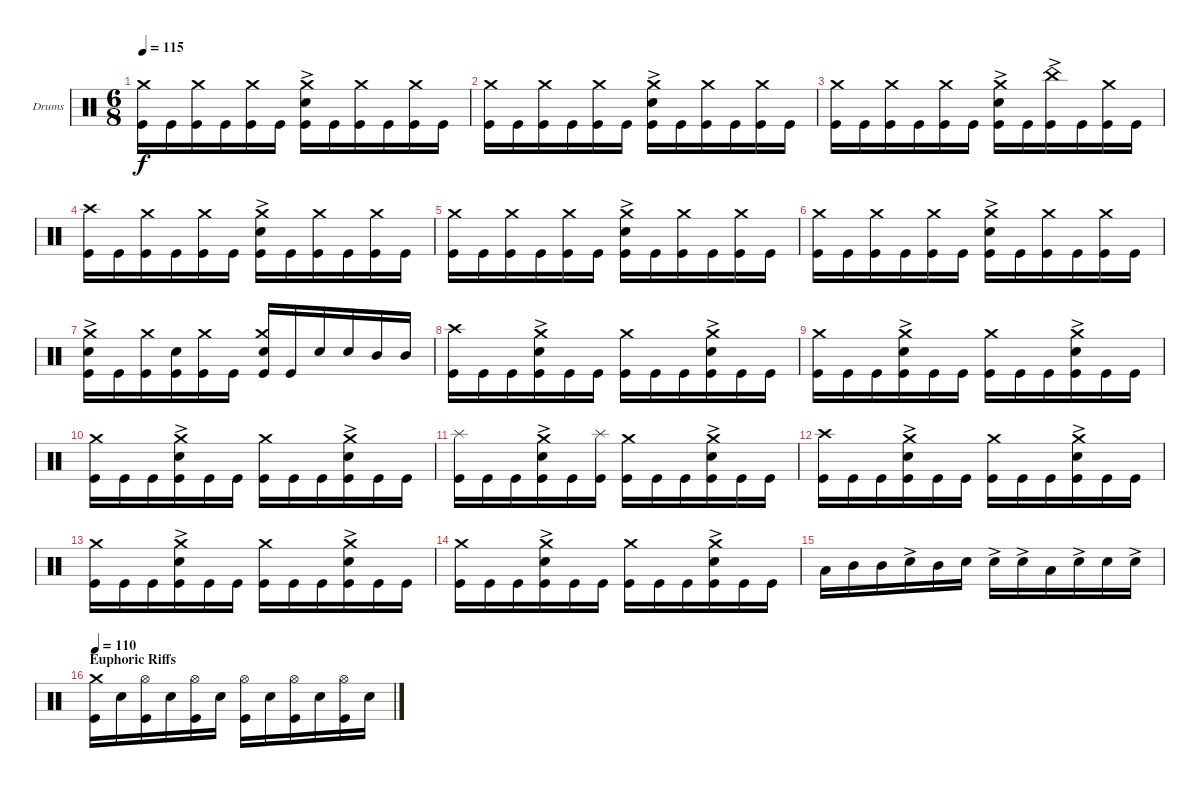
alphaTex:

\bracketExtendMode groupsimilarinstruments
\firstSystemTrackNameOrientation horizontal
\otherSystemsTrackNameOrientation horizontal
\track ("Drumkit" "Drums") {instrument percussion}
\staff {score}
\articulation defaults
\ts (6 8)
\tempo 115
\clef neutral
\ks c
("Kick (hit)" "Crash medium (hit)").16{dy f} "Kick (hit)".16 ("Kick (hit)" "Crash medium (hit)").16 "Kick (hit)".16 ("Kick (hit)" "Crash medium (hit)").16 "Kick (hit)".16 ("Kick (hit)" "Crash medium (hit)" "Snare (hit) 2"{ac}).16 "Kick (hit)".16 ("Kick (hit)" "Crash medium (hit)").16 "Kick (hit)".16 ("Kick (hit)" "Crash medium (hit)").16 "Kick (hit)".16 |
("Kick (hit)" "Crash medium (hit)").16 "Kick (hit)".16 ("Kick (hit)" "Crash medium (hit)").16 "Kick (hit)".16 ("Kick (hit)" "Crash medium (hit)").16 "Kick (hit)".16 ("Kick (hit)" "Crash medium (hit)" "Snare (hit) 2"{ac}).16 "Kick (hit)".16 ("Kick (hit)" "Crash medium (hit)").16 "Kick (hit)".16 ("Kick (hit)" "Crash medium (hit)").16 "Kick (hit)".16 |
("Kick (hit)" "Crash medium (hit)").16 "Kick (hit)".16 ("Kick (hit)" "Crash medium (hit)").16 "Kick (hit)".16 ("Kick (hit)" "Crash medium (hit)").16 "Kick (hit)".16 ("Kick (hit)" "Crash medium (hit)" "Snare (hit) 2"{ac}).16 "Kick (hit)".16 ("Kick (hit)" "China (hit)"{ac}).16 "Kick (hit)".16 ("Kick (hit)" "Crash medium (hit)").16 "Kick (hit)".16 |
("Kick (hit)" "Crash high (hit)").16 "Kick (hit)".16 ("Kick (hit)" "Crash medium (hit)").16 "Kick (hit)".16 ("Kick (hit)" "Crash medium (hit)").16 "Kick (hit)".16 ("Kick (hit)" "Crash medium (hit)" "Snare (hit) 2"{ac}).16 "Kick (hit)".16 ("Kick (hit)" "Crash medium (hit)").16 "Kick (hit)".16 ("Kick (hit)" "Crash medium (hit)").16 "Kick (hit)".16 |
("Kick (hit)" "Crash medium (hit)").16 "Kick (hit)".16 ("Kick (hit)" "Crash medium (hit)").16 "Kick (hit)".16 ("Kick (hit)" "Crash medium (hit)").16 "Kick (hit)".16 ("Kick (hit)" "Crash medium (hit)" "Snare (hit) 2"{ac}).16 "Kick (hit)".16 ("Kick (hit)" "Crash medium (hit)").16 "Kick (hit)".16 ("Kick (hit)" "Crash medium (hit)").16 "Kick (hit)".16 |
("Kick (hit)" "Crash medium (hit)").16 "Kick (hit)".16 ("Kick (hit)" "Crash medium (hit)").16 "Kick (hit)".16 ("Kick (hit)" "Crash medium (hit)").16 "Kick (hit)".16 ("Kick (hit)" "Crash medium (hit)" "Snare (hit) 2"{ac}).16 "Kick (hit)".16 ("Kick (hit)" "Crash medium (hit)").16 "Kick (hit)".16 ("Kick (hit)" "Crash medium (hit)").16 "Kick (hit)".16 |
("Kick (hit)" "Crash medium (hit)" "Snare (hit) 2"{ac}).16 "Kick (hit)".16 ("Kick (hit)" "Crash medium (hit)").16 ("Kick (hit)" "Snare (hit) 2").16 ("Kick (hit)" "Crash medium (hit)").16 "Kick (hit)".16 ("Kick (hit)" "Crash medium (hit)" "Snare (hit) 2").16 "Kick (hit)".16 "Snare (hit) 2".16 "Snare (hit) 2".16 "Mid Tom (hit)".16 "Mid Tom (hit)".16 |
("Kick (hit)" "Crash high (hit)").16 "Kick (hit)".16 "Kick (hit)".16 ("Kick (hit)" "Snare (hit) 2"{ac} "Crash medium (hit)").16 "Kick (hit)".16 "Kick (hit)".16 ("Kick (hit)" "Crash medium (hit)").16 "Kick (hit)".16 "Kick (hit)".16 ("Kick (hit)" "Snare (hit) 2"{ac} "Crash medium (hit)").16 "Kick (hit)".16 "Kick (hit)".16 |
("Kick (hit)" "Crash medium (hit)").16 "Kick (hit)".16 "Kick (hit)".16 ("Kick (hit)" "Snare (hit) 2"{ac} "Crash medium (hit)").16 "Kick (hit)".16 "Kick (hit)".16 ("Kick (hit)" "Crash medium (hit)").16 "Kick (hit)".16 "Kick (hit)".16 ("Kick (hit)" "Snare (hit) 2"{ac} "Crash medium (hit)").16 "Kick (hit)".16 "Kick (hit)".16 |
("Kick (hit)" "Crash medium (hit)").16 "Kick (hit)".16 "Kick (hit)".16 ("Kick (hit)" "Snare (hit) 2"{ac} "Crash medium (hit)").16 "Kick (hit)".16 "Kick (hit)".16 ("Kick (hit)" "Crash medium (hit)").16 "Kick (hit)".16 "Kick (hit)".16 ("Kick (hit)" "Snare (hit) 2"{ac} "Crash medium (hit)").16 "Kick (hit)".16 "Kick (hit)".16 |
("Kick (hit)" "Splash (hit)").16 "Kick (hit)".16 "Kick (hit)".16 ("Kick (hit)" "Snare (hit) 2"{ac} "Crash medium (hit)").16 "Kick (hit)".16 ("Kick (hit)" "Splash (hit)").16 ("Kick (hit)" "Crash medium (hit)").16 "Kick (hit)".16 "Kick (hit)".16 ("Kick (hit)" "Snare (hit) 2"{ac} "Crash medium (hit)").16 "Kick (hit)".16 "Kick (hit)".16 |
("Kick (hit)" "Crash high (hit)").16 "Kick (hit)".16 "Kick (hit)".16 ("Kick (hit)" "Snare (hit) 2"{ac} "Crash medium (hit)").16 "Kick (hit)".16 "Kick (hit)".16 ("Kick (hit)" "Crash medium (hit)").16 "Kick (hit)".16 "Kick (hit)".16 ("Kick (hit)" "Snare (hit) 2"{ac} "Crash medium (hit)").16 "Kick (hit)".16 "Kick (hit)".16 |
("Kick (hit)" "Crash medium (hit)").16 "Kick (hit)".16 "Kick (hit)".16 ("Kick (hit)" "Snare (hit) 2"{ac} "Crash medium (hit)").16 "Kick (hit)".16 "Kick (hit)".16 ("Kick (hit)" "Crash medium (hit)").16 "Kick (hit)".16 "Kick (hit)".16 ("Kick (hit)" "Snare (hit) 2"{ac} "Crash medium (hit)").16 "Kick (hit)".16 "Kick (hit)".16 |
("Kick (hit)" "Crash medium (hit)").16 "Kick (hit)".16 "Kick (hit)".16 ("Kick (hit)" "Snare (hit) 2"{ac} "Crash medium (hit)").16 "Kick (hit)".16 "Kick (hit)".16 ("Kick (hit)" "Crash medium (hit)").16 "Kick (hit)".16 "Kick (hit)".16 ("Kick (hit)" "Snare (hit) 2"{ac} "Crash medium (hit)").16 "Kick (hit)".16 "Kick (hit)".16 |
"Low Tom (hit)".16 "Mid Tom (hit)".16 "Mid Tom (hit)".16 "Snare (hit) 2"{ac}.16 "Mid Tom (hit)".16 "Snare (hit) 2".16 "Snare (hit) 2"{ac}.16 "Snare (hit) 2"{ac}.16 "Low Tom (hit)".16 "Snare (hit) 2"{ac}.16 "Snare (hit) 2".16 "Snare (hit) 2"{ac}.16 |
\section ("" "Euphoric Riffs")
\tempo 110
("Kick (hit)" "Crash medium (hit)").16 "Snare (hit) 2".16 ("Kick (hit)" "Hi-Hat (open)").16 "Snare (hit) 2".16 ("Kick (hit)" "Hi-Hat (open)").16 "Snare (hit) 2".16 ("Kick (hit)" "Hi-Hat (open)").16 "Snare (hit) 2".16 ("Kick (hit)" "Hi-Hat (open)").16 "Snare (hit) 2".16 ("Kick (hit)" "Hi-Hat (open)").16 "Snare (hit) 2".16
